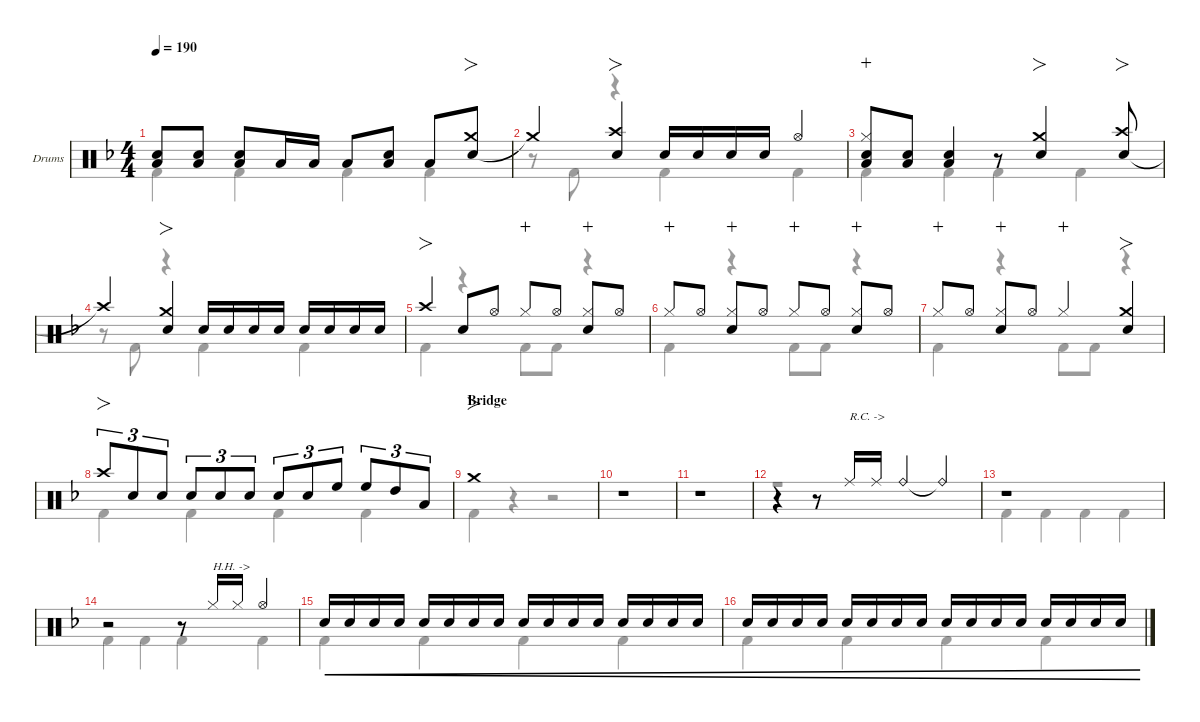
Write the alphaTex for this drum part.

\defaultSystemsLayout 4
\hideDynamics
\bracketExtendMode nobrackets
\firstSystemTrackNameOrientation horizontal
\track ("Drums" "Drums") {defaultSystemsLayout 4 instrument percussion}
\staff {score}
\articulation defaults
\voice
\ts (4 4)
\tempo 190
\clef neutral
\ks f
("Low Tom (hit)"{acc forcenatural} "Snare (hit) 2"{acc forcenatural}).8{dy f} ("Low Tom (hit)"{acc forcenatural} "Snare (hit) 2"{acc forcenatural}).8{beam split} ("Low Tom (hit)"{acc forcenatural} "Snare (hit) 2"{acc forcenatural}).8 "Low Tom (hit)"{acc forcenatural}.16 "Low Tom (hit)"{acc forcenatural}.16 "Low Tom (hit)"{acc forcenatural}.8 ("Snare (hit) 2"{acc forcenatural} "Low Tom (hit)"{acc forcenatural}).8 "Low Tom (hit)"{acc forcenatural}.8 ("Snare (hit) 2"{acc forcenatural} "Crash medium (hit)"{acc forcenatural}).8{fo} |
"Crash medium (hit)"{t acc forcenatural}.4 ("Snare (hit) 2"{acc forcenatural} "Crash high (hit)"{acc forcenatural}).4{fo} "Snare (hit) 2"{acc forcenatural}.16 "Snare (hit) 2"{acc forcenatural}.16{dy mf} "Snare (hit) 2"{acc forcenatural}.16{dy f} "Snare (hit) 2"{acc forcenatural}.16{dy mf} "Hi-Hat (open)"{acc forcenatural}.4{dy f} |
("Low Tom (hit)"{acc forcenatural} "Snare (hit) 2"{acc forcenatural} "Hi-Hat (closed)"{acc forcenatural}).8{wahc} ("Low Tom (hit)"{acc forcenatural} "Snare (hit) 2"{acc forcenatural}).8{beam split} ("Low Tom (hit)"{acc forcenatural} "Snare (hit) 2"{acc forcenatural}).4 r.8 ("Snare (hit) 2"{acc forcenatural} "Crash medium (hit)"{acc forcenatural}).4{fo} ("Snare (hit) 2"{acc forcenatural} "Crash high (hit)"{acc forcenatural}).8{fo} |
"Crash high (hit)"{t acc forcenatural}.4 ("Snare (hit) 2"{acc forcenatural} "Crash medium (hit)"{acc forcenatural}).4{fo} "Snare (hit) 2"{acc forcenatural}.16 "Snare (hit) 2"{acc forcenatural}.16{dy mf} "Snare (hit) 2"{acc forcenatural}.16{dy f} "Snare (hit) 2"{acc forcenatural}.16{dy mf beam split} "Snare (hit) 2"{acc forcenatural}.16{dy f} "Snare (hit) 2"{acc forcenatural}.16{dy mf} "Snare (hit) 2"{acc forcenatural}.16{dy f} "Snare (hit) 2"{acc forcenatural}.16{dy mf} |
"Crash high (hit)"{acc forcenatural}.4{fo dy f} "Snare (hit) 2"{acc forcenatural}.8 "Hi-Hat (open)"{acc forcenatural}.8 "Hi-Hat (closed)"{acc forcenatural}.8{wahc} "Hi-Hat (open)"{acc forcenatural}.8 ("Hi-Hat (closed)"{acc forcenatural} "Snare (hit) 2"{acc forcenatural}).8{wahc} "Hi-Hat (open)"{acc forcenatural}.8 |
"Hi-Hat (closed)"{acc forcenatural}.8{wahc} "Hi-Hat (open)"{acc forcenatural}.8 ("Hi-Hat (closed)"{acc forcenatural} "Snare (hit) 2"{acc forcenatural}).8{wahc} "Hi-Hat (open)"{acc forcenatural}.8 "Hi-Hat (closed)"{acc forcenatural}.8{wahc} "Hi-Hat (open)"{acc forcenatural}.8 ("Hi-Hat (closed)"{acc forcenatural} "Snare (hit) 2"{acc forcenatural}).8{wahc} "Hi-Hat (open)"{acc forcenatural}.8 |
"Hi-Hat (closed)"{acc forcenatural}.8{wahc} "Hi-Hat (open)"{acc forcenatural}.8 ("Hi-Hat (closed)"{acc forcenatural} "Snare (hit) 2"{acc forcenatural}).8{wahc} "Hi-Hat (open)"{acc forcenatural}.8 "Hi-Hat (closed)"{acc forcenatural}.4{wahc} ("Snare (hit) 2"{acc forcenatural} "Crash medium (hit)"{acc forcenatural}).4{fo} |
"Crash high (hit)"{acc forcenatural}.8{fo tu (3 2)} "Snare (hit) 2"{acc forcenatural}.8{tu (3 2) dy mf} "Snare (hit) 2"{acc forcenatural}.8{tu (3 2)} "Snare (hit) 2"{acc forcenatural}.8{tu (3 2) dy f} "Snare (hit) 2"{acc forcenatural}.8{tu (3 2) dy mf} "Snare (hit) 2"{acc forcenatural}.8{tu (3 2)} "Snare (hit) 2"{acc forcenatural}.8{tu (3 2) dy f} "Snare (hit) 2"{acc forcenatural}.8{tu (3 2) dy mf} "High Floor Tom (hit)"{acc forcenatural}.8{tu (3 2) dy f} "High Floor Tom (hit)"{acc forcenatural}.8{tu (3 2)} "High Tom (hit)"{acc forcenatural}.8{tu (3 2)} "Low Tom (hit)"{acc forcenatural}.8{tu (3 2)} |
\section ("" "Bridge")
"Crash medium (hit)"{acc forcenatural}.1{fo} |
r.1 |
r.1 |
r.4 r.8 "Ride (middle)"{acc forcenatural}.16{txt "R.C. ->" dy mf} "Ride (middle)"{acc forcenatural}.16{dy mp} "Ride (bell)"{acc forcenatural}.4{dy mf} "Ride (bell)"{t acc forcenatural}.4 |
r.1 |
r.2 r.8 "Hi-Hat (closed)"{acc forcenatural}.16{txt "H.H. ->" dy f} "Hi-Hat (closed)"{acc forcenatural}.16{dy mf} "Hi-Hat (open)"{acc forcenatural}.4{dy f} |
"Snare (hit) 2"{acc forcenatural}.16{cre dy mp} "Snare (hit) 2"{acc forcenatural}.16{cre} "Snare (hit) 2"{acc forcenatural}.16{cre} "Snare (hit) 2"{acc forcenatural}.16{cre beam split} "Snare (hit) 2"{acc forcenatural}.16{cre} "Snare (hit) 2"{acc forcenatural}.16{cre} "Snare (hit) 2"{acc forcenatural}.16{cre} "Snare (hit) 2"{acc forcenatural}.16{cre} "Snare (hit) 2"{acc forcenatural}.16{cre} "Snare (hit) 2"{acc forcenatural}.16{cre} "Snare (hit) 2"{acc forcenatural}.16{cre} "Snare (hit) 2"{acc forcenatural}.16{cre beam split} "Snare (hit) 2"{acc forcenatural}.16{cre} "Snare (hit) 2"{acc forcenatural}.16{cre} "Snare (hit) 2"{acc forcenatural}.16{cre} "Snare (hit) 2"{acc forcenatural}.16{cre} |
"Snare (hit) 2"{acc forcenatural}.16{cre} "Snare (hit) 2"{acc forcenatural}.16{cre} "Snare (hit) 2"{acc forcenatural}.16{cre} "Snare (hit) 2"{acc forcenatural}.16{cre beam split} "Snare (hit) 2"{acc forcenatural}.16{cre} "Snare (hit) 2"{acc forcenatural}.16{cre} "Snare (hit) 2"{acc forcenatural}.16{cre} "Snare (hit) 2"{acc forcenatural}.16{cre} "Snare (hit) 2"{acc forcenatural}.16{cre} "Snare (hit) 2"{acc forcenatural}.16{cre} "Snare (hit) 2"{acc forcenatural}.16{cre} "Snare (hit) 2"{acc forcenatural}.16{cre beam split} "Snare (hit) 2"{acc forcenatural}.16{cre} "Snare (hit) 2"{acc forcenatural}.16{cre} "Snare (hit) 2"{acc forcenatural}.16{cre} "Snare (hit) 2"{acc forcenatural}.16{cre}
\voice
\clef neutral
\ottava regular
\simile none
\ks f "Kick (hit) 2"{acc forcenatural}.4{dy f} "Kick (hit) 2"{acc forcenatural}.4 "Kick (hit) 2"{acc forcenatural}.4 "Kick (hit) 2"{acc forcenatural}.4
|
r.8 "Kick (hit) 2"{acc forcenatural}.8 r.4 "Kick (hit) 2"{acc forcenatural}.4 "Kick (hit) 2"{acc forcenatural}.4 |
"Kick (hit) 2"{acc forcenatural}.4 "Kick (hit) 2"{acc forcenatural}.4 "Kick (hit) 2"{acc forcenatural}.4 "Kick (hit) 2"{acc forcenatural}.4 |
r.8 "Kick (hit) 2"{acc forcenatural}.8 r.4 "Kick (hit) 2"{acc forcenatural}.4 "Kick (hit) 2"{acc forcenatural}.4 |
"Kick (hit) 2"{acc forcenatural}.4 r.4 "Kick (hit) 2"{acc forcenatural}.8 "Kick (hit) 2"{acc forcenatural}.8 r.4 |
"Kick (hit) 2"{acc forcenatural}.4 r.4 "Kick (hit) 2"{acc forcenatural}.8 "Kick (hit) 2"{acc forcenatural}.8 r.4 |
"Kick (hit) 2"{acc forcenatural}.4 r.4 "Kick (hit) 2"{acc forcenatural}.8 "Kick (hit) 2"{acc forcenatural}.8 r.4 |
"Kick (hit) 2"{acc forcenatural}.4 "Kick (hit) 2"{acc forcenatural}.4 "Kick (hit) 2"{acc forcenatural}.4 "Kick (hit) 2"{acc forcenatural}.4 |
"Kick (hit) 2"{acc forcenatural}.4 r.4 r.2 |
r.1 |
r.1 |
r.1 |
"Kick (hit) 2"{acc forcenatural}.4 "Kick (hit) 2"{acc forcenatural}.4 "Kick (hit) 2"{acc forcenatural}.4 "Kick (hit) 2"{acc forcenatural}.4 |
"Kick (hit) 2"{acc forcenatural}.4 "Kick (hit) 2"{acc forcenatural}.4 "Kick (hit) 2"{acc forcenatural}.4 "Kick (hit) 2"{acc forcenatural}.4 |
"Kick (hit) 2"{acc forcenatural}.4 "Kick (hit) 2"{acc forcenatural}.4 "Kick (hit) 2"{acc forcenatural}.4 "Kick (hit) 2"{acc forcenatural}.4 |
"Kick (hit) 2"{acc forcenatural}.4 "Kick (hit) 2"{acc forcenatural}.4 "Kick (hit) 2"{acc forcenatural}.4 "Kick (hit) 2"{acc forcenatural}.4
